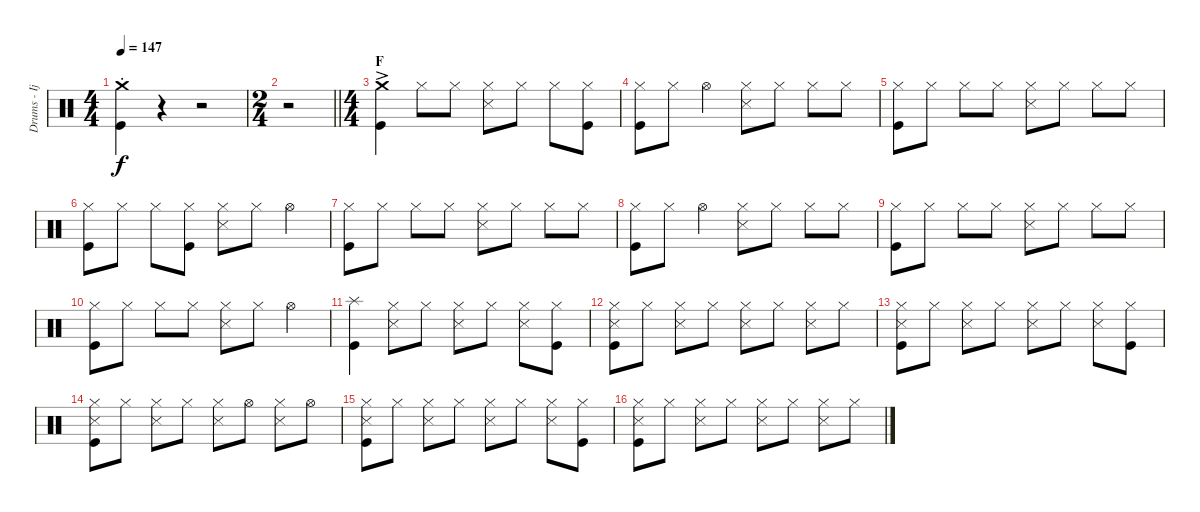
\track ("Drums - Ijichi" "Drums - Ij") {instrument percussion}
\staff {score}
\articulation defaults
\ts (4 4)
\tempo 147
\clef neutral
\ks c
("Crash medium (hit)"{st} "Kick (hit)").4{dy f} r.4 r.2 |
\ts (2 4)
\barLineRight lightlight
r.2 |
\ts (4 4)
\section ("" "F")
("Crash medium (hit)"{ac} "Kick (hit)").4 "Hi-Hat (closed)".8 "Hi-Hat (closed)".8 ("Hi-Hat (closed)" "Snare (side stick) 3").8 "Hi-Hat (closed)".8 "Hi-Hat (closed)".8 ("Hi-Hat (closed)" "Kick (hit)").8 |
("Hi-Hat (closed)" "Kick (hit)").8 "Hi-Hat (closed)".8 "Hi-Hat (open)".4 ("Hi-Hat (closed)" "Snare (side stick) 3").8 "Hi-Hat (closed)".8 "Hi-Hat (closed)".8 "Hi-Hat (closed)".8 |
("Hi-Hat (closed)" "Kick (hit)").8 "Hi-Hat (closed)".8 "Hi-Hat (closed)".8 "Hi-Hat (closed)".8 ("Hi-Hat (closed)" "Snare (side stick) 3").8 "Hi-Hat (closed)".8 "Hi-Hat (closed)".8 "Hi-Hat (closed)".8 |
("Hi-Hat (closed)" "Kick (hit)").8 "Hi-Hat (closed)".8 "Hi-Hat (closed)".8 ("Hi-Hat (closed)" "Kick (hit)").8 ("Hi-Hat (closed)" "Snare (side stick) 3").8 "Hi-Hat (closed)".8 "Hi-Hat (open)".4 |
("Hi-Hat (closed)" "Kick (hit)").8 "Hi-Hat (closed)".8 "Hi-Hat (closed)".8 "Hi-Hat (closed)".8 ("Hi-Hat (closed)" "Snare (side stick) 3").8 "Hi-Hat (closed)".8 "Hi-Hat (closed)".8 "Hi-Hat (closed)".8 |
("Hi-Hat (closed)" "Kick (hit)").8 "Hi-Hat (closed)".8 "Hi-Hat (open)".4 ("Hi-Hat (closed)" "Snare (side stick) 3").8 "Hi-Hat (closed)".8 "Hi-Hat (closed)".8 "Hi-Hat (closed)".8 |
("Hi-Hat (closed)" "Kick (hit)").8 "Hi-Hat (closed)".8 "Hi-Hat (closed)".8 "Hi-Hat (closed)".8 ("Hi-Hat (closed)" "Snare (side stick) 3").8 "Hi-Hat (closed)".8 "Hi-Hat (closed)".8 "Hi-Hat (closed)".8 |
("Hi-Hat (closed)" "Kick (hit)").8 "Hi-Hat (closed)".8 "Hi-Hat (closed)".8 "Hi-Hat (closed)".8 ("Hi-Hat (closed)" "Snare (side stick) 3").8 "Hi-Hat (closed)".8 "Hi-Hat (open)".4 |
("Splash (hit)" "Kick (hit)").4 ("Hi-Hat (closed)" "Snare (side stick) 3").8 "Hi-Hat (closed)".8 ("Hi-Hat (closed)" "Snare (side stick) 3").8 "Hi-Hat (closed)".8 ("Hi-Hat (closed)" "Snare (side stick) 3").8 ("Hi-Hat (closed)" "Kick (hit)").8 |
("Hi-Hat (closed)" "Snare (side stick) 3" "Kick (hit)").8 "Hi-Hat (closed)".8 ("Hi-Hat (closed)" "Snare (side stick) 3").8 "Hi-Hat (closed)".8 ("Hi-Hat (closed)" "Snare (side stick) 3").8 "Hi-Hat (closed)".8 ("Hi-Hat (closed)" "Snare (side stick) 3").8 "Hi-Hat (closed)".8 |
("Hi-Hat (closed)" "Snare (side stick) 3" "Kick (hit)").8 "Hi-Hat (closed)".8 ("Hi-Hat (closed)" "Snare (side stick) 3").8 "Hi-Hat (closed)".8 ("Hi-Hat (closed)" "Snare (side stick) 3").8 "Hi-Hat (closed)".8 ("Hi-Hat (closed)" "Snare (side stick) 3").8 ("Hi-Hat (closed)" "Kick (hit)").8 |
("Hi-Hat (closed)" "Snare (side stick) 3" "Kick (hit)").8 "Hi-Hat (closed)".8 ("Hi-Hat (closed)" "Snare (side stick) 3").8 "Hi-Hat (closed)".8 ("Hi-Hat (closed)" "Snare (side stick) 3").8 "Hi-Hat (open)".8 ("Hi-Hat (closed)" "Snare (side stick) 3").8 "Hi-Hat (open)".8 |
("Hi-Hat (closed)" "Snare (side stick) 3" "Kick (hit)").8 "Hi-Hat (closed)".8 ("Hi-Hat (closed)" "Snare (side stick) 3").8 "Hi-Hat (closed)".8 ("Hi-Hat (closed)" "Snare (side stick) 3").8 "Hi-Hat (closed)".8 ("Hi-Hat (closed)" "Snare (side stick) 3").8 ("Hi-Hat (closed)" "Kick (hit)").8 |
("Hi-Hat (closed)" "Snare (side stick) 3" "Kick (hit)").8 "Hi-Hat (closed)".8 ("Hi-Hat (closed)" "Snare (side stick) 3").8 "Hi-Hat (closed)".8 ("Hi-Hat (closed)" "Snare (side stick) 3").8 "Hi-Hat (closed)".8 ("Hi-Hat (closed)" "Snare (side stick) 3").8 "Hi-Hat (closed)".8
